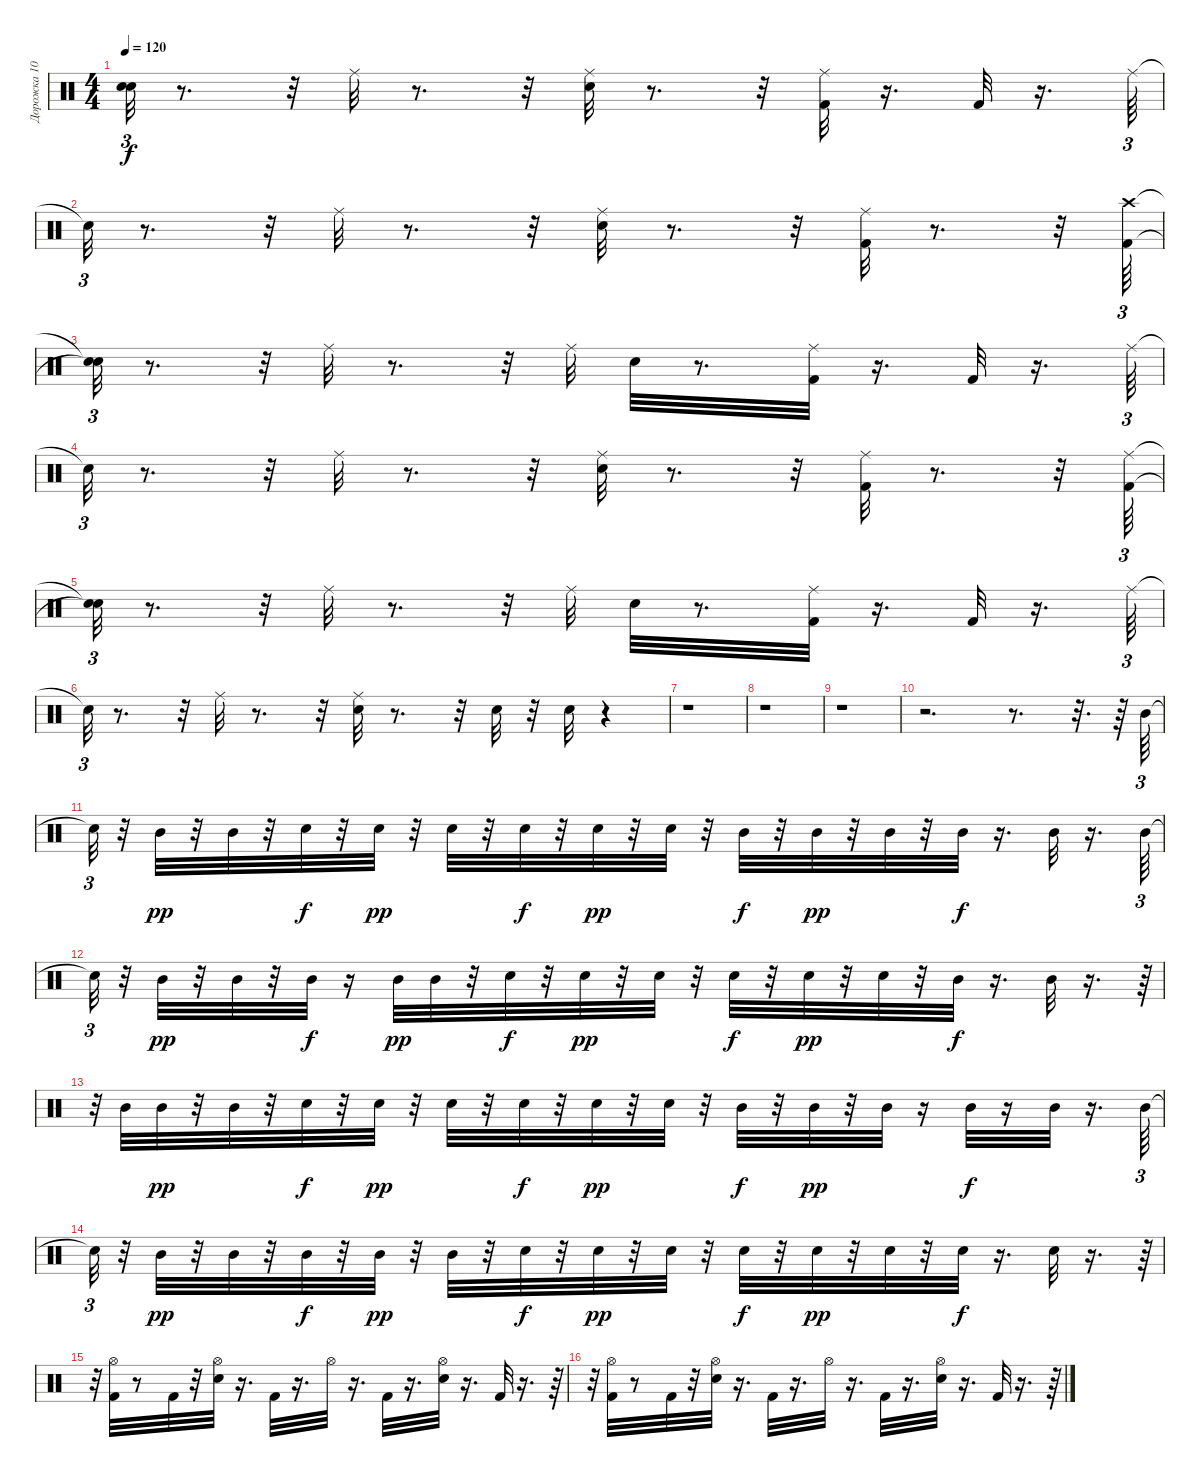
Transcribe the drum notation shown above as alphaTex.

\track ("Дорожка 10" "Дорожка 10") {instrument percussion}
\staff {score}
\articulation defaults
\ts (4 4)
\tempo 120
\clef neutral
\ks c
("Snare (hit)"{t} "Snare (hit)"{t}).32{tu (3 2) dy f} r.8{d} r.32 "Ride (middle)".32 r.8{d} r.32 ("Snare (hit) 2" "Ride (middle)").32 r.8{d} r.32 ("Kick (hit) 2" "Ride (middle)").32 r.16{d} "Kick (hit) 2".32 r.16{d} "Ride (middle)".64{tu (3 2)} |
"Snare (hit)"{t}.32{tu (3 2)} r.8{d} r.32 "Ride (middle)".32 r.8{d} r.32 ("Snare (hit) 2" "Ride (middle)").32 r.8{d} r.32 ("Ride (middle)" "Kick (hit) 2").32 r.8{d} r.32 ("Crash high (hit)" "Kick (hit) 2").64{tu (3 2)} |
("Snare (hit)"{t} "Snare (hit)"{t}).32{tu (3 2)} r.8{d} r.32 "Ride (middle)".32 r.8{d} r.32 "Ride (middle)".32 "Snare (hit) 2".32 r.8{d} ("Ride (middle)" "Kick (hit) 2").32 r.16{d} "Kick (hit) 2".32 r.16{d} "Ride (middle)".64{tu (3 2)} |
"Snare (hit)"{t}.32{tu (3 2)} r.8{d} r.32 "Ride (middle)".32 r.8{d} r.32 ("Ride (middle)" "Snare (hit) 2").32 r.8{d} r.32 ("Ride (middle)" "Kick (hit) 2").32 r.8{d} r.32 ("Ride (middle)" "Kick (hit) 2").64{tu (3 2)} |
("Snare (hit)"{t} "Snare (hit)"{t}).32{tu (3 2)} r.8{d} r.32 "Ride (middle)".32 r.8{d} r.32 "Ride (middle)".32 "Snare (hit) 2".32 r.8{d} ("Ride (middle)" "Kick (hit) 2").32 r.16{d} "Kick (hit) 2".32 r.16{d} "Ride (middle)".64{tu (3 2)} |
"Snare (hit)"{t}.32{tu (3 2)} r.8{d} r.32 "Ride (middle)".32 r.8{d} r.32 ("Ride (middle)" "Snare (hit) 2").32 r.8{d} r.32 "Snare (hit) 2".32 r.32 "Snare (hit) 2".32 r.4{tu (3 2)} |
r.1 |
r.1 |
r.1 |
r.2{d} r.8{d} r.32{d} r.64 "Mid Tom (hit)".64{tu (3 2)} |
"Snare (hit)"{t}.32{tu (3 2)} r.32 "Mid Tom (hit)".32{dy pp} r.32 "Mid Tom (hit)".32 r.32 "Snare (hit) 2".32{dy f} r.32 "Snare (hit) 2".32{dy pp} r.32 "Snare (hit) 2".32 r.32 "Snare (hit) 2".32{dy f} r.32 "Snare (hit) 2".32{dy pp} r.32 "Snare (hit) 2".32 r.32 "Mid Tom (hit)".32{dy f} r.32 "Mid Tom (hit)".32{dy pp} r.32 "Mid Tom (hit)".32 r.32 "Mid Tom (hit)".32{dy f} r.16{d} "Mid Tom (hit)".32 r.16{d} "Mid Tom (hit)".64{tu (3 2)} |
"Snare (hit)"{t}.32{tu (3 2)} r.32 "Mid Tom (hit)".32{dy pp} r.32 "Mid Tom (hit)".32 r.32 "Mid Tom (hit)".32{dy f} r.16 "Mid Tom (hit)".32{dy pp} "Mid Tom (hit)".32 r.32 "Snare (hit) 2".32{dy f} r.32 "Snare (hit) 2".32{dy pp} r.32 "Snare (hit) 2".32 r.32 "Snare (hit) 2".32{dy f} r.32 "Snare (hit) 2".32{dy pp} r.32 "Snare (hit) 2".32 r.32 "Mid Tom (hit)".32{dy f} r.16{d} "Mid Tom (hit)".32 r.16{d} r.64{tu (3 2)} |
r.32{tu (3 2)} "Mid Tom (hit)".32 "Mid Tom (hit)".32{dy pp} r.32 "Mid Tom (hit)".32 r.32 "Snare (hit) 2".32{dy f} r.32 "Snare (hit) 2".32{dy pp} r.32 "Snare (hit) 2".32 r.32 "Snare (hit) 2".32{dy f} r.32 "Snare (hit) 2".32{dy pp} r.32 "Snare (hit) 2".32 r.32 "Mid Tom (hit)".32{dy f} r.32 "Mid Tom (hit)".32{dy pp} r.32 "Mid Tom (hit)".32 r.16 "Mid Tom (hit)".32{dy f} r.16 "Mid Tom (hit)".32 r.16{d} "Mid Tom (hit)".64{tu (3 2)} |
"Snare (hit)"{t}.32{tu (3 2)} r.32 "Mid Tom (hit)".32{dy pp} r.32 "Mid Tom (hit)".32 r.32 "Mid Tom (hit)".32{dy f} r.32 "Mid Tom (hit)".32{dy pp} r.32 "Mid Tom (hit)".32 r.32 "Snare (hit) 2".32{dy f} r.32 "Snare (hit) 2".32{dy pp} r.32 "Snare (hit) 2".32 r.32 "Snare (hit) 2".32{dy f} r.32 "Snare (hit) 2".32{dy pp} r.32 "Snare (hit) 2".32 r.32 "Snare (hit) 2".32{dy f} r.16{d} "Snare (hit) 2".32 r.16{d} r.64{tu (3 2)} |
r.32{tu (3 2)} ("Hi-Hat (open)" "Kick (hit) 2").32 r.8 "Kick (hit) 2".32 r.32 ("Hi-Hat (open)" "Electric Snare (hit)").32 r.16{d} "Kick (hit) 2".32 r.16{d} "Hi-Hat (open)".32 r.16{d} "Kick (hit) 2".32 r.16{d} ("Hi-Hat (open)" "Electric Snare (hit)").32 r.16{d} "Kick (hit) 2".32 r.16{d} r.64{tu (3 2)} |
r.32{tu (3 2)} ("Hi-Hat (open)" "Kick (hit) 2").32 r.8 "Kick (hit) 2".32 r.32 ("Hi-Hat (open)" "Electric Snare (hit)").32 r.16{d} "Kick (hit) 2".32 r.16{d} "Hi-Hat (open)".32 r.16{d} "Kick (hit) 2".32 r.16{d} ("Hi-Hat (open)" "Electric Snare (hit)").32 r.16{d} "Kick (hit) 2".32 r.16{d} r.64{tu (3 2)}
